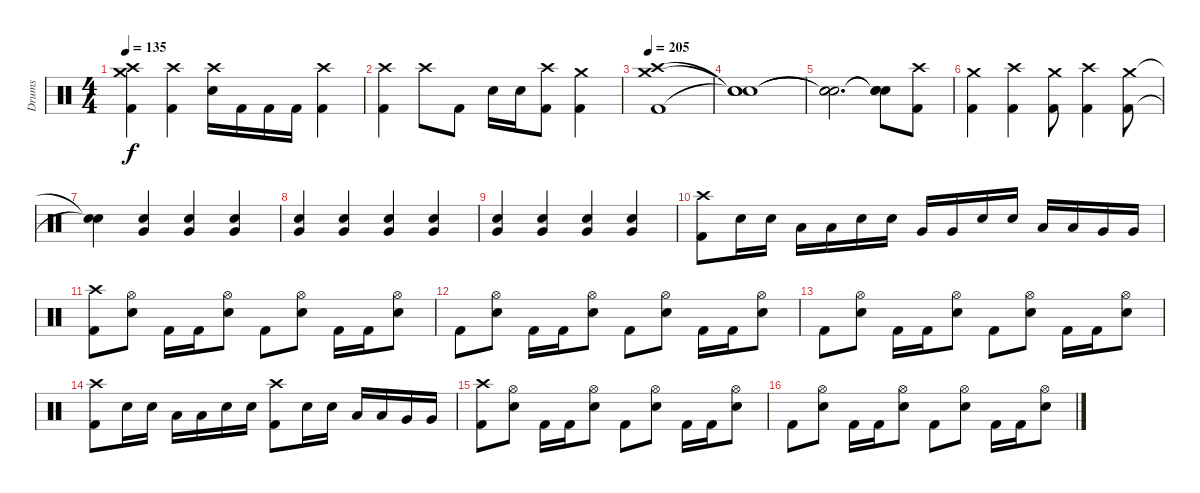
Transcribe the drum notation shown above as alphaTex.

\track ("Drums" "Drums") {instrument percussion}
\staff {score}
\articulation defaults
\ts (4 4)
\tempo 135
\clef neutral
\ks c
("Crash high (hit)" "Crash medium (hit)" "Kick (hit) 2").4{dy f} ("Crash high (hit)" "Kick (hit) 2").4 ("Crash high (hit)" "Electric Snare (hit)").16 "Kick (hit) 2".16 "Kick (hit) 2".16 "Kick (hit) 2".16 ("Crash high (hit)" "Kick (hit) 2").4 |
("Crash high (hit)" "Kick (hit) 2").4 "Crash high (hit)".8 "Kick (hit) 2".8 "Electric Snare (hit)".16 "Electric Snare (hit)".16 ("Crash high (hit)" "Kick (hit) 2").8 ("Crash medium (hit)" "Kick (hit) 2").4 |
\tempo 205
("Crash high (hit)" "Crash medium (hit)" "Kick (hit) 2").1 |
("Snare (hit)"{t} "Snare (hit)"{t} "Snare (hit)"{t}).1 |
("Snare (hit)"{t} "Snare (hit)"{t} "Snare (hit)"{t}).2{d} ("Snare (hit)"{t} "Snare (hit)"{t} "Snare (hit)"{t}).8 ("Crash high (hit)" "Kick (hit) 2").8 |
("Crash medium (hit)" "Kick (hit) 2").4 ("Crash high (hit)" "Kick (hit) 2").4 ("Crash medium (hit)" "Kick (hit) 2").8 ("Crash high (hit)" "Kick (hit) 2").4 ("Crash medium (hit)" "Kick (hit) 2").8 |
("Snare (hit)"{t} "Snare (hit)"{t}).4 ("Very Low Tom (hit)" "Electric Snare (hit)").4 ("Very Low Tom (hit)" "Electric Snare (hit)").4 ("Very Low Tom (hit)" "Electric Snare (hit)").4 |
("Very Low Tom (hit)" "Electric Snare (hit)").4 ("Very Low Tom (hit)" "Electric Snare (hit)").4 ("Very Low Tom (hit)" "Electric Snare (hit)").4 ("Very Low Tom (hit)" "Electric Snare (hit)").4 |
("Very Low Tom (hit)" "Electric Snare (hit)").4 ("Very Low Tom (hit)" "Electric Snare (hit)").4 ("Very Low Tom (hit)" "Electric Snare (hit)").4 ("Very Low Tom (hit)" "Electric Snare (hit)").4 |
("Crash high (hit)" "Kick (hit) 2").8 "Electric Snare (hit)".16 "Electric Snare (hit)".16 "Low Tom (hit)".16 "Low Tom (hit)".16 "Electric Snare (hit)".16 "Electric Snare (hit)".16 "Very Low Tom (hit)".16 "Very Low Tom (hit)".16 "Electric Snare (hit)".16 "Electric Snare (hit)".16 "Low Tom (hit)".16 "Low Tom (hit)".16 "Very Low Tom (hit)".16 "Very Low Tom (hit)".16 |
("Crash high (hit)" "Kick (hit) 2").8 ("Hi-Hat (open)" "Electric Snare (hit)").8 "Kick (hit) 2".16 "Kick (hit) 2".16 ("Hi-Hat (open)" "Electric Snare (hit)").8 "Kick (hit) 2".8 ("Hi-Hat (open)" "Electric Snare (hit)").8 "Kick (hit) 2".16 "Kick (hit) 2".16 ("Hi-Hat (open)" "Electric Snare (hit)").8 |
"Kick (hit) 2".8 ("Hi-Hat (open)" "Electric Snare (hit)").8 "Kick (hit) 2".16 "Kick (hit) 2".16 ("Hi-Hat (open)" "Electric Snare (hit)").8 "Kick (hit) 2".8 ("Hi-Hat (open)" "Electric Snare (hit)").8 "Kick (hit) 2".16 "Kick (hit) 2".16 ("Hi-Hat (open)" "Electric Snare (hit)").8 |
"Kick (hit) 2".8 ("Hi-Hat (open)" "Electric Snare (hit)").8 "Kick (hit) 2".16 "Kick (hit) 2".16 ("Hi-Hat (open)" "Electric Snare (hit)").8 "Kick (hit) 2".8 ("Hi-Hat (open)" "Electric Snare (hit)").8 "Kick (hit) 2".16 "Kick (hit) 2".16 ("Hi-Hat (open)" "Electric Snare (hit)").8 |
("Crash high (hit)" "Kick (hit) 2").8 "Electric Snare (hit)".16 "Electric Snare (hit)".16 "Low Tom (hit)".16 "Low Tom (hit)".16 "Electric Snare (hit)".16 "Electric Snare (hit)".16 ("Crash high (hit)" "Kick (hit) 2").8 "Electric Snare (hit)".16 "Electric Snare (hit)".16 "Low Tom (hit)".16 "Low Tom (hit)".16 "Very Low Tom (hit)".16 "Very Low Tom (hit)".16 |
("Crash high (hit)" "Kick (hit) 2").8 ("Hi-Hat (open)" "Electric Snare (hit)").8 "Kick (hit) 2".16 "Kick (hit) 2".16 ("Hi-Hat (open)" "Electric Snare (hit)").8 "Kick (hit) 2".8 ("Hi-Hat (open)" "Electric Snare (hit)").8 "Kick (hit) 2".16 "Kick (hit) 2".16 ("Hi-Hat (open)" "Electric Snare (hit)").8 |
"Kick (hit) 2".8 ("Hi-Hat (open)" "Electric Snare (hit)").8 "Kick (hit) 2".16 "Kick (hit) 2".16 ("Hi-Hat (open)" "Electric Snare (hit)").8 "Kick (hit) 2".8 ("Hi-Hat (open)" "Electric Snare (hit)").8 "Kick (hit) 2".16 "Kick (hit) 2".16 ("Hi-Hat (open)" "Electric Snare (hit)").8
